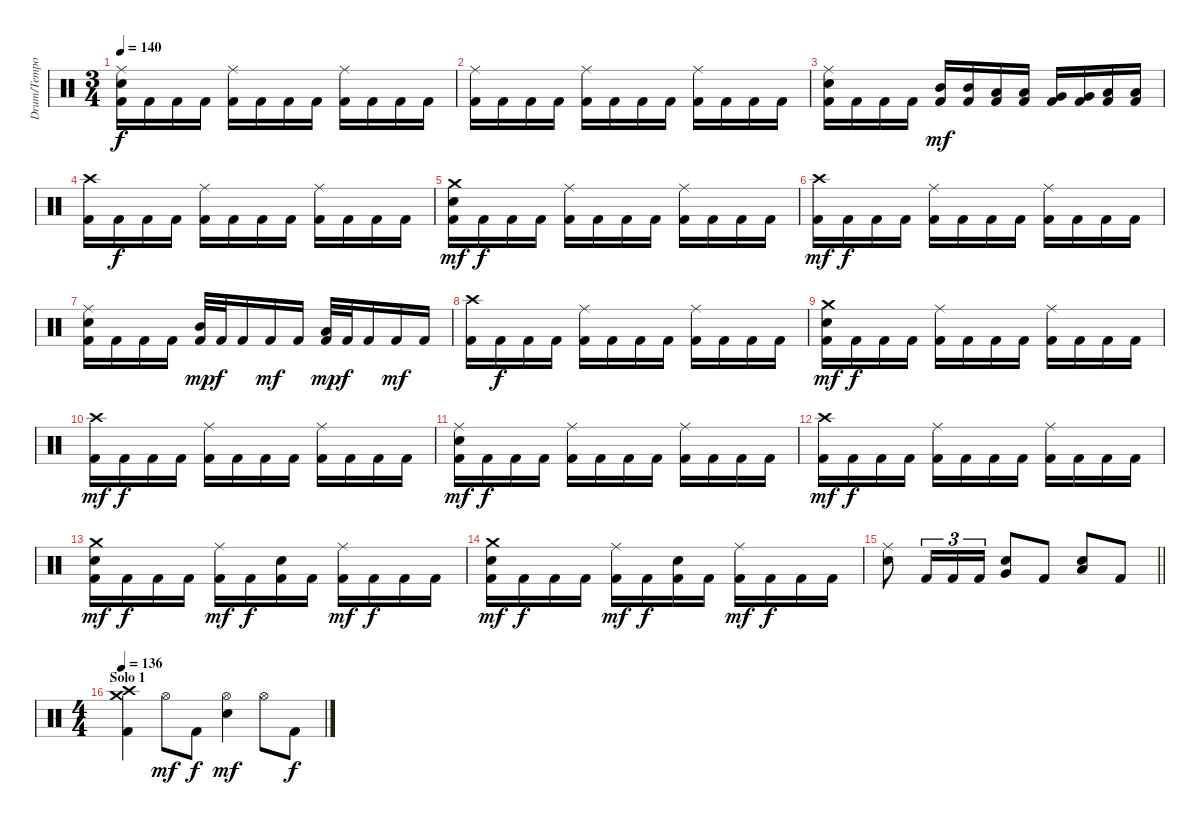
\track ("Drum/Tempo" "Drum/Tempo") {instrument percussion}
\staff {score}
\articulation defaults
\ts (3 4)
\tempo 140
\clef neutral
\ks c
("Kick (hit) 2" "Electric Snare (hit)" "Ride (middle)").16{dy f} "Kick (hit) 2".16 "Kick (hit) 2".16 "Kick (hit) 2".16 ("Kick (hit) 2" "Ride (middle)").16 "Kick (hit) 2".16 "Kick (hit) 2".16 "Kick (hit) 2".16 ("Kick (hit) 2" "Ride (middle)").16 "Kick (hit) 2".16 "Kick (hit) 2".16 "Kick (hit) 2".16 |
("Kick (hit) 2" "Ride (middle)").16 "Kick (hit) 2".16 "Kick (hit) 2".16 "Kick (hit) 2".16 ("Kick (hit) 2" "Ride (middle)").16 "Kick (hit) 2".16 "Kick (hit) 2".16 "Kick (hit) 2".16 ("Kick (hit) 2" "Ride (middle)").16 "Kick (hit) 2".16 "Kick (hit) 2".16 "Kick (hit) 2".16 |
("Kick (hit) 2" "Electric Snare (hit)" "Ride (middle)").16 "Kick (hit) 2".16 "Kick (hit) 2".16 "Kick (hit) 2".16 ("Kick (hit) 2" "Mid Tom (hit)").16{dy mf} ("Kick (hit) 2" "Mid Tom (hit)").16 ("Kick (hit) 2" "Low Tom (hit)").16 ("Kick (hit) 2" "Low Tom (hit)").16 ("Kick (hit) 2" "Very Low Tom (hit)").16 ("Kick (hit) 2" "Very Low Tom (hit)").16 ("Kick (hit) 2" "Low Floor Tom (hit)").16 ("Kick (hit) 2" "Low Floor Tom (hit)").16 |
("Kick (hit) 2" "Crash high (hit)").16 "Kick (hit) 2".16{dy f} "Kick (hit) 2".16 "Kick (hit) 2".16 ("Kick (hit) 2" "Ride (middle)").16 "Kick (hit) 2".16 "Kick (hit) 2".16 "Kick (hit) 2".16 ("Kick (hit) 2" "Ride (middle)").16 "Kick (hit) 2".16 "Kick (hit) 2".16 "Kick (hit) 2".16 |
("Kick (hit) 2" "Electric Snare (hit)" "Crash medium (hit)").16{dy mf} "Kick (hit) 2".16{dy f} "Kick (hit) 2".16 "Kick (hit) 2".16 ("Kick (hit) 2" "Ride (middle)").16 "Kick (hit) 2".16 "Kick (hit) 2".16 "Kick (hit) 2".16 ("Kick (hit) 2" "Ride (middle)").16 "Kick (hit) 2".16 "Kick (hit) 2".16 "Kick (hit) 2".16 |
("Kick (hit) 2" "Crash high (hit)").16{dy mf} "Kick (hit) 2".16{dy f} "Kick (hit) 2".16 "Kick (hit) 2".16 ("Kick (hit) 2" "Ride (middle)").16 "Kick (hit) 2".16 "Kick (hit) 2".16 "Kick (hit) 2".16 ("Kick (hit) 2" "Ride (middle)").16 "Kick (hit) 2".16 "Kick (hit) 2".16 "Kick (hit) 2".16 |
("Kick (hit) 2" "Electric Snare (hit)" "Ride (middle)").16 "Kick (hit) 2".16 "Kick (hit) 2".16 "Kick (hit) 2".16 ("Kick (hit) 2" "Mid Tom (hit)").32{dy mp} "Kick (hit) 2".32{dy f} "Kick (hit) 2".16 "Kick (hit) 2".16{dy mf} "Kick (hit) 2".16 ("Kick (hit) 2" "Low Tom (hit)").32{dy mp} "Kick (hit) 2".32{dy f} "Kick (hit) 2".16 "Kick (hit) 2".16{dy mf} "Kick (hit) 2".16 |
("Kick (hit) 2" "Crash high (hit)").16 "Kick (hit) 2".16{dy f} "Kick (hit) 2".16 "Kick (hit) 2".16 ("Kick (hit) 2" "Ride (middle)").16 "Kick (hit) 2".16 "Kick (hit) 2".16 "Kick (hit) 2".16 ("Kick (hit) 2" "Ride (middle)").16 "Kick (hit) 2".16 "Kick (hit) 2".16 "Kick (hit) 2".16 |
("Kick (hit) 2" "Electric Snare (hit)" "Crash medium (hit)").16{dy mf} "Kick (hit) 2".16{dy f} "Kick (hit) 2".16 "Kick (hit) 2".16 ("Kick (hit) 2" "Ride (middle)").16 "Kick (hit) 2".16 "Kick (hit) 2".16 "Kick (hit) 2".16 ("Kick (hit) 2" "Ride (middle)").16 "Kick (hit) 2".16 "Kick (hit) 2".16 "Kick (hit) 2".16 |
("Kick (hit) 2" "Crash high (hit)").16{dy mf} "Kick (hit) 2".16{dy f} "Kick (hit) 2".16 "Kick (hit) 2".16 ("Kick (hit) 2" "Ride (middle)").16 "Kick (hit) 2".16 "Kick (hit) 2".16 "Kick (hit) 2".16 ("Kick (hit) 2" "Ride (middle)").16 "Kick (hit) 2".16 "Kick (hit) 2".16 "Kick (hit) 2".16 |
("Kick (hit) 2" "Electric Snare (hit)" "Ride (middle)").16{dy mf} "Kick (hit) 2".16{dy f} "Kick (hit) 2".16 "Kick (hit) 2".16 ("Kick (hit) 2" "Ride (middle)").16 "Kick (hit) 2".16 "Kick (hit) 2".16 "Kick (hit) 2".16 ("Kick (hit) 2" "Ride (middle)").16 "Kick (hit) 2".16 "Kick (hit) 2".16 "Kick (hit) 2".16 |
("Kick (hit) 2" "Crash high (hit)").16{dy mf} "Kick (hit) 2".16{dy f} "Kick (hit) 2".16 "Kick (hit) 2".16 ("Kick (hit) 2" "Ride (middle)").16 "Kick (hit) 2".16 "Kick (hit) 2".16 "Kick (hit) 2".16 ("Kick (hit) 2" "Ride (middle)").16 "Kick (hit) 2".16 "Kick (hit) 2".16 "Kick (hit) 2".16 |
("Kick (hit) 2" "Electric Snare (hit)" "Crash medium (hit)").16{dy mf} "Kick (hit) 2".16{dy f} "Kick (hit) 2".16 "Kick (hit) 2".16 ("Kick (hit) 2" "Ride (middle)").16{dy mf} "Kick (hit) 2".16{dy f} ("Kick (hit) 2" "Electric Snare (hit)").16 "Kick (hit) 2".16 ("Kick (hit) 2" "Ride (middle)").16{dy mf} "Kick (hit) 2".16{dy f} "Kick (hit) 2".16 "Kick (hit) 2".16 |
("Kick (hit) 2" "Electric Snare (hit)" "Crash medium (hit)").16{dy mf} "Kick (hit) 2".16{dy f} "Kick (hit) 2".16 "Kick (hit) 2".16 ("Kick (hit) 2" "Ride (middle)").16{dy mf} "Kick (hit) 2".16{dy f} ("Kick (hit) 2" "Electric Snare (hit)").16 "Kick (hit) 2".16 ("Kick (hit) 2" "Ride (middle)").16{dy mf} "Kick (hit) 2".16{dy f} "Kick (hit) 2".16 "Kick (hit) 2".16 |
\barLineRight lightlight
("Electric Snare (hit)" "Ride (middle)").8 "Kick (hit) 2".16{tu (3 2)} "Kick (hit) 2".16{tu (3 2)} "Kick (hit) 2".16{tu (3 2)} ("Electric Snare (hit)" "Very Low Tom (hit)").8 "Kick (hit) 2".8 ("Electric Snare (hit)" "Low Floor Tom (hit)").8 "Kick (hit) 2".8 |
\ts (4 4)
\section ("" "Solo 1")
\tempo 136
("Kick (hit) 2" "Crash medium (hit)" "Crash high (hit)").4 "Hi-Hat (open)".8{dy mf} "Kick (hit) 2".8{dy f} ("Electric Snare (hit)" "Hi-Hat (open)").4{dy mf} "Hi-Hat (open)".8 "Kick (hit) 2".8{dy f}
